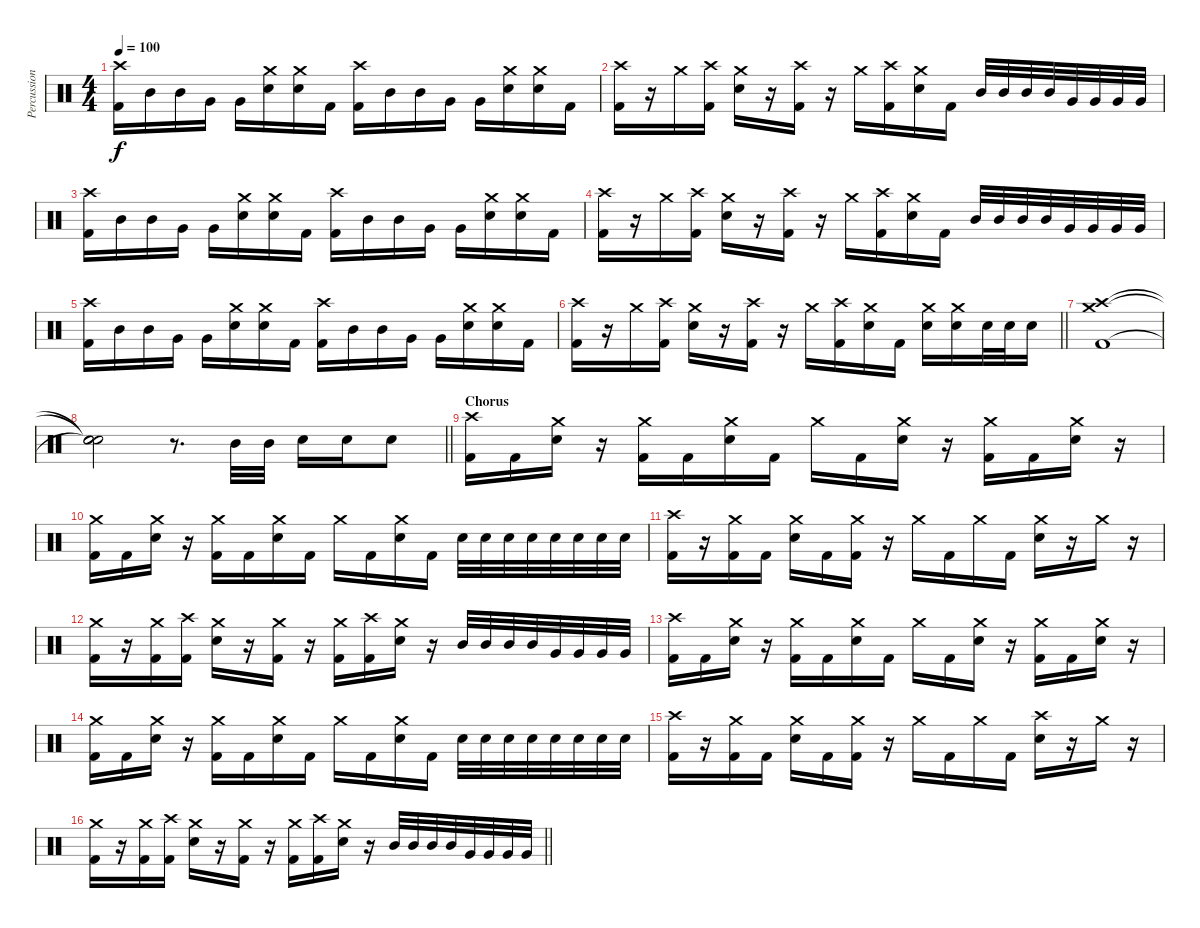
\track ("Percussion" "Percussion") {instrument percussion}
\staff {score}
\articulation defaults
\ts (4 4)
\tempo 100
\clef neutral
\ks c
("Crash high (hit)" "Kick (hit) 2").16{dy f} "Mid Tom (hit)".16 "Mid Tom (hit)".16 "Very Low Tom (hit)".16 "Very Low Tom (hit)".16 ("Crash medium (hit)" "Electric Snare (hit)").16 ("Crash medium (hit)" "Electric Snare (hit)").16 "Kick (hit) 2".16 ("Crash high (hit)" "Kick (hit) 2").16 "Mid Tom (hit)".16 "Mid Tom (hit)".16 "Very Low Tom (hit)".16 "Very Low Tom (hit)".16 ("Crash medium (hit)" "Electric Snare (hit)").16 ("Crash medium (hit)" "Electric Snare (hit)").16 "Kick (hit) 2".16 |
("Crash high (hit)" "Kick (hit) 2").16 r.16 "Crash medium (hit)".16 ("Crash high (hit)" "Kick (hit) 2").16 ("Crash medium (hit)" "Electric Snare (hit)").16 r.16 ("Crash high (hit)" "Kick (hit) 2").16 r.16 "Crash medium (hit)".16 ("Crash high (hit)" "Kick (hit) 2").16 ("Crash medium (hit)" "Electric Snare (hit)").16 "Kick (hit) 2".16 "Mid Tom (hit)".32 "Mid Tom (hit)".32 "Mid Tom (hit)".32 "Mid Tom (hit)".32 "Very Low Tom (hit)".32 "Very Low Tom (hit)".32 "Very Low Tom (hit)".32 "Very Low Tom (hit)".32 |
("Crash high (hit)" "Kick (hit) 2").16 "Mid Tom (hit)".16 "Mid Tom (hit)".16 "Very Low Tom (hit)".16 "Very Low Tom (hit)".16 ("Crash medium (hit)" "Electric Snare (hit)").16 ("Crash medium (hit)" "Electric Snare (hit)").16 "Kick (hit) 2".16 ("Crash high (hit)" "Kick (hit) 2").16 "Mid Tom (hit)".16 "Mid Tom (hit)".16 "Very Low Tom (hit)".16 "Very Low Tom (hit)".16 ("Crash medium (hit)" "Electric Snare (hit)").16 ("Crash medium (hit)" "Electric Snare (hit)").16 "Kick (hit) 2".16 |
("Crash high (hit)" "Kick (hit) 2").16 r.16 "Crash medium (hit)".16 ("Crash high (hit)" "Kick (hit) 2").16 ("Crash medium (hit)" "Electric Snare (hit)").16 r.16 ("Crash high (hit)" "Kick (hit) 2").16 r.16 "Crash medium (hit)".16 ("Crash high (hit)" "Kick (hit) 2").16 ("Crash medium (hit)" "Electric Snare (hit)").16 "Kick (hit) 2".16 "Mid Tom (hit)".32 "Mid Tom (hit)".32 "Mid Tom (hit)".32 "Mid Tom (hit)".32 "Very Low Tom (hit)".32 "Very Low Tom (hit)".32 "Very Low Tom (hit)".32 "Very Low Tom (hit)".32 |
("Crash high (hit)" "Kick (hit) 2").16 "Mid Tom (hit)".16 "Mid Tom (hit)".16 "Very Low Tom (hit)".16 "Very Low Tom (hit)".16 ("Crash medium (hit)" "Electric Snare (hit)").16 ("Crash medium (hit)" "Electric Snare (hit)").16 "Kick (hit) 2".16 ("Crash high (hit)" "Kick (hit) 2").16 "Mid Tom (hit)".16 "Mid Tom (hit)".16 "Very Low Tom (hit)".16 "Very Low Tom (hit)".16 ("Crash medium (hit)" "Electric Snare (hit)").16 ("Crash medium (hit)" "Electric Snare (hit)").16 "Kick (hit) 2".16 |
\barLineRight lightlight
("Crash high (hit)" "Kick (hit) 2").16 r.16 "Crash medium (hit)".16 ("Crash high (hit)" "Kick (hit) 2").16 ("Crash medium (hit)" "Electric Snare (hit)").16 r.16 ("Crash high (hit)" "Kick (hit) 2").16 r.16 "Crash medium (hit)".16 ("Crash high (hit)" "Kick (hit) 2").16 ("Crash medium (hit)" "Electric Snare (hit)").16 "Kick (hit) 2".16 ("Crash medium (hit)" "Electric Snare (hit)").16 ("Crash medium (hit)" "Electric Snare (hit)").16 "Electric Snare (hit)".32 "Electric Snare (hit)".32 "Electric Snare (hit)".16 |
("Crash high (hit)" "Crash medium (hit)" "Kick (hit) 2").1 |
\barLineRight lightlight
("Snare (hit)"{t} "Snare (hit)"{t} "Snare (hit)"{t}).2 r.8{d} "Mid Tom (hit)".32 "Mid Tom (hit)".32 "Electric Snare (hit)".16 "Electric Snare (hit)".16 "Electric Snare (hit)".8 |
\section ("" "Chorus")
("Crash high (hit)" "Kick (hit) 2").16 "Kick (hit) 2".16 ("Crash medium (hit)" "Electric Snare (hit)").16 r.16 ("Crash medium (hit)" "Kick (hit) 2").16 "Kick (hit) 2".16 ("Crash medium (hit)" "Electric Snare (hit)").16 "Kick (hit) 2".16 "Crash medium (hit)".16 "Kick (hit) 2".16 ("Crash medium (hit)" "Electric Snare (hit)").16 r.16 ("Crash medium (hit)" "Kick (hit) 2").16 "Kick (hit) 2".16 ("Crash medium (hit)" "Electric Snare (hit)").16 r.16 |
("Crash medium (hit)" "Kick (hit) 2").16 "Kick (hit) 2".16 ("Crash medium (hit)" "Electric Snare (hit)").16 r.16 ("Crash medium (hit)" "Kick (hit) 2").16 "Kick (hit) 2".16 ("Crash medium (hit)" "Electric Snare (hit)").16 "Kick (hit) 2".16 "Crash medium (hit)".16 "Kick (hit) 2".16 ("Crash medium (hit)" "Electric Snare (hit)").16 "Kick (hit) 2".16 "Electric Snare (hit)".32 "Electric Snare (hit)".32 "Electric Snare (hit)".32 "Electric Snare (hit)".32 "Electric Snare (hit)".32 "Electric Snare (hit)".32 "Electric Snare (hit)".32 "Electric Snare (hit)".32 |
("Crash high (hit)" "Kick (hit) 2").16 r.16 ("Crash medium (hit)" "Kick (hit) 2").16 "Kick (hit) 2".16 ("Crash medium (hit)" "Electric Snare (hit)").16 "Kick (hit) 2".16 ("Crash medium (hit)" "Kick (hit) 2").16 r.16 "Crash medium (hit)".16 "Kick (hit) 2".16 "Crash medium (hit)".16 "Kick (hit) 2".16 ("Crash medium (hit)" "Electric Snare (hit)").16 r.16 "Crash medium (hit)".16 r.16 |
("Crash medium (hit)" "Kick (hit) 2").16 r.16 ("Crash medium (hit)" "Kick (hit) 2").16 ("Crash high (hit)" "Kick (hit) 2").16 ("Crash medium (hit)" "Electric Snare (hit)").16 r.16 ("Crash medium (hit)" "Kick (hit) 2").16 r.16 ("Crash medium (hit)" "Kick (hit) 2").16 ("Crash high (hit)" "Kick (hit) 2").16 ("Crash medium (hit)" "Electric Snare (hit)").16 r.16 "Mid Tom (hit)".32 "Mid Tom (hit)".32 "Mid Tom (hit)".32 "Mid Tom (hit)".32 "Very Low Tom (hit)".32 "Very Low Tom (hit)".32 "Very Low Tom (hit)".32 "Very Low Tom (hit)".32 |
("Crash high (hit)" "Kick (hit) 2").16 "Kick (hit) 2".16 ("Crash medium (hit)" "Electric Snare (hit)").16 r.16 ("Crash medium (hit)" "Kick (hit) 2").16 "Kick (hit) 2".16 ("Crash medium (hit)" "Electric Snare (hit)").16 "Kick (hit) 2".16 "Crash medium (hit)".16 "Kick (hit) 2".16 ("Crash medium (hit)" "Electric Snare (hit)").16 r.16 ("Crash medium (hit)" "Kick (hit) 2").16 "Kick (hit) 2".16 ("Crash medium (hit)" "Electric Snare (hit)").16 r.16 |
("Crash medium (hit)" "Kick (hit) 2").16 "Kick (hit) 2".16 ("Crash medium (hit)" "Electric Snare (hit)").16 r.16 ("Crash medium (hit)" "Kick (hit) 2").16 "Kick (hit) 2".16 ("Crash medium (hit)" "Electric Snare (hit)").16 "Kick (hit) 2".16 "Crash medium (hit)".16 "Kick (hit) 2".16 ("Crash medium (hit)" "Electric Snare (hit)").16 "Kick (hit) 2".16 "Electric Snare (hit)".32 "Electric Snare (hit)".32 "Electric Snare (hit)".32 "Electric Snare (hit)".32 "Electric Snare (hit)".32 "Electric Snare (hit)".32 "Electric Snare (hit)".32 "Electric Snare (hit)".32 |
("Crash high (hit)" "Kick (hit) 2").16 r.16 ("Crash medium (hit)" "Kick (hit) 2").16 "Kick (hit) 2".16 ("Crash medium (hit)" "Electric Snare (hit)").16 "Kick (hit) 2".16 ("Crash medium (hit)" "Kick (hit) 2").16 r.16 "Crash medium (hit)".16 "Kick (hit) 2".16 "Crash medium (hit)".16 "Kick (hit) 2".16 ("Crash high (hit)" "Electric Snare (hit)").16 r.16 "Crash medium (hit)".16 r.16 |
\barLineRight lightlight
("Crash medium (hit)" "Kick (hit) 2").16 r.16 ("Crash medium (hit)" "Kick (hit) 2").16 ("Crash high (hit)" "Kick (hit) 2").16 ("Crash medium (hit)" "Electric Snare (hit)").16 r.16 ("Crash medium (hit)" "Kick (hit) 2").16 r.16 ("Crash medium (hit)" "Kick (hit) 2").16 ("Crash high (hit)" "Kick (hit) 2").16 ("Crash medium (hit)" "Electric Snare (hit)").16 r.16 "Mid Tom (hit)".32 "Mid Tom (hit)".32 "Mid Tom (hit)".32 "Mid Tom (hit)".32 "Very Low Tom (hit)".32 "Very Low Tom (hit)".32 "Very Low Tom (hit)".32 "Very Low Tom (hit)".32
